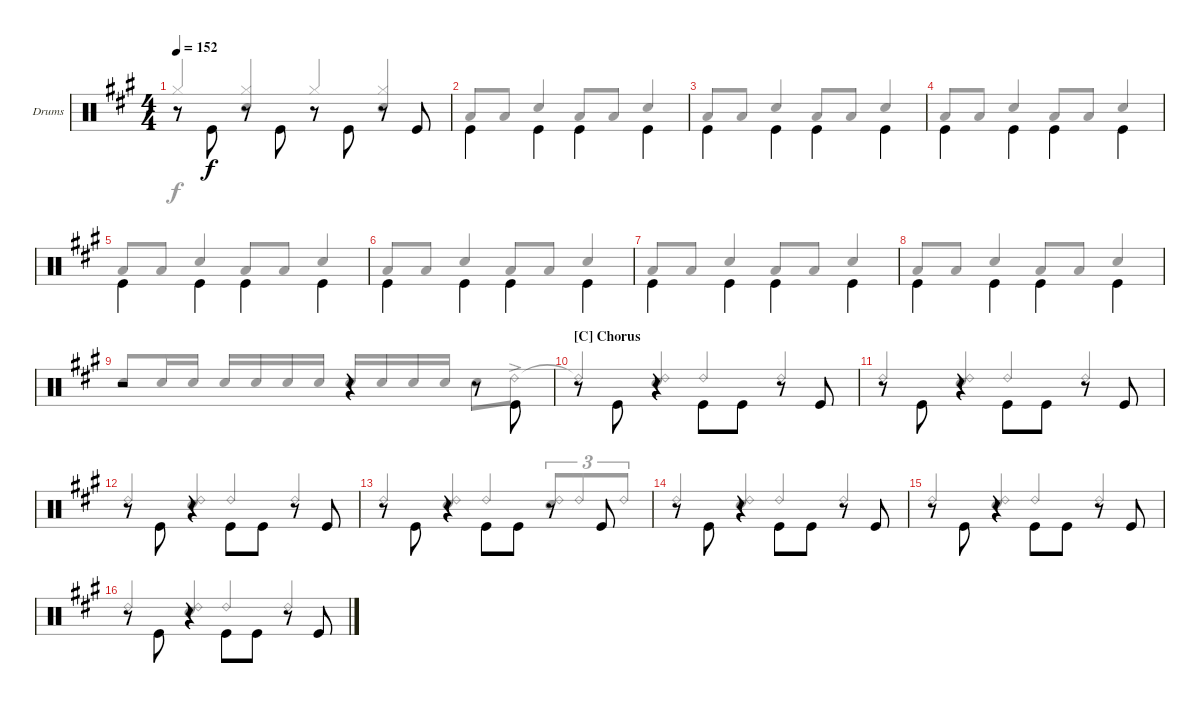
\defaultSystemsLayout 4
\bracketExtendMode groupsimilarinstruments
\firstSystemTrackNameOrientation horizontal
\otherSystemsTrackNameOrientation horizontal
\track ("Drumkit" "Drums") {instrument percussion}
\staff {score}
\articulation defaults
\voice
\ts (4 4)
\tempo 152
\clef neutral
\scale
1.05801
\ks a
r.8{dy f} "Kick (hit)".8{beam invert} r.8 "Kick (hit)".8 r.8{beam invert} "Kick (hit)".8{beam invert} r.8 "Kick (hit)".8 |
\scale
0.941992 "Kick (hit)".4{beam invert} "Kick (hit)".4{beam invert} "Kick (hit)".4{beam invert} "Kick (hit)".4{beam invert} |
\scale
1.05801 "Kick (hit)".4{beam invert} "Kick (hit)".4{beam invert} "Kick (hit)".4{beam invert} "Kick (hit)".4{beam invert} |
\scale
0.941992 "Kick (hit)".4{beam invert} "Kick (hit)".4{beam invert} "Kick (hit)".4{beam invert} "Kick (hit)".4{beam invert} |
\scale
1.05801 "Kick (hit)".4{beam invert} "Kick (hit)".4{beam invert} "Kick (hit)".4{beam invert} "Kick (hit)".4{beam invert} |
\scale
0.941992 "Kick (hit)".4{beam invert} "Kick (hit)".4{beam invert} "Kick (hit)".4{beam invert} "Kick (hit)".4{beam invert} |
\scale
1.05801 "Kick (hit)".4{beam invert} "Kick (hit)".4{beam invert} "Kick (hit)".4{beam invert} "Kick (hit)".4{beam invert} |
\scale
0.941992 "Kick (hit)".4{beam invert} "Kick (hit)".4{beam invert} "Kick (hit)".4{beam invert} "Kick (hit)".4{beam invert} |
\scale
1.05801 r.2 r.4 r.8 "Kick (hit)".8{beam invert} |
\section ("C" "Chorus")
\scale
0.941992 r.8{beam invert} "Kick (hit)".8{beam invert} r.4{beam invert} "Kick (hit)".8{beam invert} "Kick (hit)".8 r.8 "Kick (hit)".8 |
\scale
1.05801 r.8{beam invert} "Kick (hit)".8{beam invert} r.4{beam invert} "Kick (hit)".8{beam invert} "Kick (hit)".8 r.8 "Kick (hit)".8 |
\scale
0.941992 r.8{beam invert} "Kick (hit)".8{beam invert} r.4{beam invert} "Kick (hit)".8{beam invert} "Kick (hit)".8 r.8 "Kick (hit)".8 |
\scale
1.05801 r.8{beam invert} "Kick (hit)".8{beam invert} r.4{beam invert} "Kick (hit)".8{beam invert} "Kick (hit)".8 r.8 "Kick (hit)".8 |
\scale
0.941992 r.8{beam invert} "Kick (hit)".8{beam invert} r.4{beam invert} "Kick (hit)".8{beam invert} "Kick (hit)".8 r.8 "Kick (hit)".8 |
\scale
1.05801 r.8{beam invert} "Kick (hit)".8{beam invert} r.4{beam invert} "Kick (hit)".8{beam invert} "Kick (hit)".8 r.8 "Kick (hit)".8 |
\scale
0.941992 r.8{beam invert} "Kick (hit)".8{beam invert} r.4{beam invert} "Kick (hit)".8{beam invert} "Kick (hit)".8 r.8 "Kick (hit)".8
\voice
\clef neutral
\ottava regular
\simile none
\scale
1.05801
\ks a "Hi-Hat (closed)".4{dy f beam invert}
("Hi-Hat (closed)" "Snare (hit) 2").4{beam invert} "Hi-Hat (closed)".4{beam invert} ("Hi-Hat (closed)" "Snare (hit) 2").4{beam invert} |
\scale
0.941992 "Low Tom (hit)".8{beam invert} "Low Tom (hit)".8 "Snare (hit) 2".4{beam invert} "Low Tom (hit)".8{beam invert} "Low Tom (hit)".8 "Snare (hit) 2".4{beam invert} |
\scale
1.05801 "Low Tom (hit)".8{beam invert} "Low Tom (hit)".8 "Snare (hit) 2".4{beam invert} "Low Tom (hit)".8{beam invert} "Low Tom (hit)".8 "Snare (hit) 2".4{beam invert} |
\scale
0.941992 "Low Tom (hit)".8{beam invert} "Low Tom (hit)".8 "Snare (hit) 2".4{beam invert} "Low Tom (hit)".8{beam invert} "Low Tom (hit)".8 "Snare (hit) 2".4{beam invert} |
\scale
1.05801 "Low Tom (hit)".8{beam invert} "Low Tom (hit)".8 "Snare (hit) 2".4{beam invert} "Low Tom (hit)".8{beam invert} "Low Tom (hit)".8 "Snare (hit) 2".4{beam invert} |
\scale
0.941992 "Low Tom (hit)".8{beam invert} "Low Tom (hit)".8 "Snare (hit) 2".4{beam invert} "Low Tom (hit)".8{beam invert} "Low Tom (hit)".8 "Snare (hit) 2".4{beam invert} |
\scale
1.05801 "Low Tom (hit)".8{beam invert} "Low Tom (hit)".8 "Snare (hit) 2".4{beam invert} "Low Tom (hit)".8{beam invert} "Low Tom (hit)".8 "Snare (hit) 2".4{beam invert} |
\scale
0.941992 "Low Tom (hit)".8{beam invert} "Low Tom (hit)".8 "Snare (hit) 2".4{beam invert} "Low Tom (hit)".8{beam invert} "Low Tom (hit)".8 "Snare (hit) 2".4{beam invert} |
\scale
1.05801 "Snare (hit) 2".8{beam invert} "Snare (hit) 2".16 "Snare (hit) 2".16 "Snare (hit) 2".16 "Snare (hit) 2".16 "Snare (hit) 2".16 "Snare (hit) 2".16 "Snare (hit) 2".16{beam invert} "Snare (hit) 2".16 "Snare (hit) 2".16 "Snare (hit) 2".16 "Snare (hit) 2".8 "Ride (bell) 2"{ac}.8 |
\scale
0.941992 "Ride (bell) 2"{t}.4{beam invert} ("Snare (hit) 2" "Ride (bell) 2").4{beam invert} "Ride (bell) 2".4{beam invert} "Ride (bell) 2".4{beam invert} |
\scale
1.05801 "Ride (bell) 2".4{beam invert} ("Snare (hit) 2" "Ride (bell) 2").4{beam invert} "Ride (bell) 2".4{beam invert} "Ride (bell) 2".4{beam invert} |
\scale
0.941992 "Ride (bell) 2".4{beam invert} ("Snare (hit) 2" "Ride (bell) 2").4{beam invert} "Ride (bell) 2".4{beam invert} "Ride (bell) 2".4{beam invert} |
\scale
1.05801 "Ride (bell) 2".4{beam invert} ("Snare (hit) 2" "Ride (bell) 2").4{beam invert} "Ride (bell) 2".4{beam invert} ("Snare (hit) 2" "Ride (bell) 2").8{tu (3 2) beam invert} "Ride (bell) 2".8{tu (3 2) beam invert} "Ride (bell) 2".8{tu (3 2) beam invert} |
\scale
0.941992 "Ride (bell) 2".4{beam invert} ("Snare (hit) 2" "Ride (bell) 2").4{beam invert} "Ride (bell) 2".4{beam invert} "Ride (bell) 2".4{beam invert} |
\scale
1.05801 "Ride (bell) 2".4{beam invert} ("Snare (hit) 2" "Ride (bell) 2").4{beam invert} "Ride (bell) 2".4{beam invert} "Ride (bell) 2".4{beam invert} |
\scale
0.941992 "Ride (bell) 2".4{beam invert} ("Snare (hit) 2" "Ride (bell) 2").4{beam invert} "Ride (bell) 2".4{beam invert} "Ride (bell) 2".4{beam invert}
